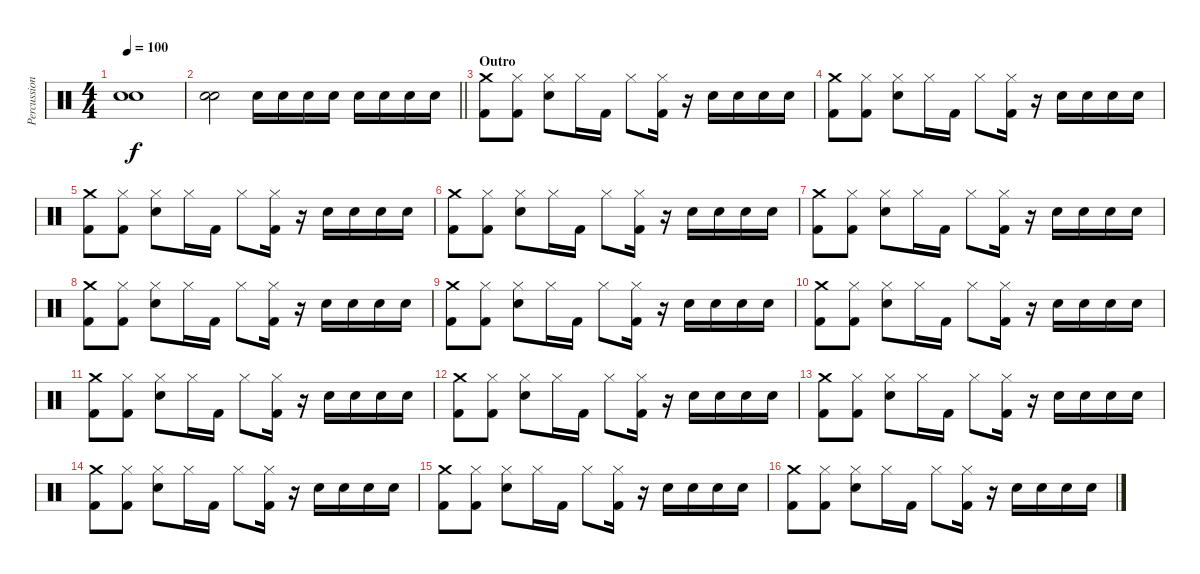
\track ("Percussion" "Percussion") {instrument percussion}
\staff {score}
\articulation defaults
\ts (4 4)
\tempo 100
\clef neutral
\ks c
("Snare (hit)" "Snare (hit)").1{dy f} |
\barLineRight lightlight
("Snare (hit)" "Snare (hit)").2 "Snare (hit) 2".16 "Snare (hit) 2".16 "Snare (hit) 2".16 "Snare (hit) 2".16 "Snare (hit) 2".16 "Snare (hit) 2".16 "Snare (hit) 2".16 "Snare (hit) 2".16 |
\section ("" "Outro")
("Crash medium (hit)" "Kick (hit) 2").8 ("Hi-Hat (closed)" "Kick (hit) 2").8 ("Hi-Hat (closed)" "Snare (hit) 2").8 "Hi-Hat (closed)".16 "Kick (hit) 2".16 "Hi-Hat (closed)".8 ("Hi-Hat (closed)" "Kick (hit) 2").16 r.16 "Snare (hit) 2".16 "Snare (hit) 2".16 "Snare (hit) 2".16 "Snare (hit) 2".16 |
("Crash medium (hit)" "Kick (hit) 2").8 ("Hi-Hat (closed)" "Kick (hit) 2").8 ("Hi-Hat (closed)" "Snare (hit) 2").8 "Hi-Hat (closed)".16 "Kick (hit) 2".16 "Hi-Hat (closed)".8 ("Hi-Hat (closed)" "Kick (hit) 2").16 r.16 "Snare (hit) 2".16 "Snare (hit) 2".16 "Snare (hit) 2".16 "Snare (hit) 2".16 |
("Crash medium (hit)" "Kick (hit) 2").8 ("Hi-Hat (closed)" "Kick (hit) 2").8 ("Hi-Hat (closed)" "Snare (hit) 2").8 "Hi-Hat (closed)".16 "Kick (hit) 2".16 "Hi-Hat (closed)".8 ("Hi-Hat (closed)" "Kick (hit) 2").16 r.16 "Snare (hit) 2".16 "Snare (hit) 2".16 "Snare (hit) 2".16 "Snare (hit) 2".16 |
("Crash medium (hit)" "Kick (hit) 2").8 ("Hi-Hat (closed)" "Kick (hit) 2").8 ("Hi-Hat (closed)" "Snare (hit) 2").8 "Hi-Hat (closed)".16 "Kick (hit) 2".16 "Hi-Hat (closed)".8 ("Hi-Hat (closed)" "Kick (hit) 2").16 r.16 "Snare (hit) 2".16 "Snare (hit) 2".16 "Snare (hit) 2".16 "Snare (hit) 2".16 |
("Crash medium (hit)" "Kick (hit) 2").8 ("Hi-Hat (closed)" "Kick (hit) 2").8 ("Hi-Hat (closed)" "Snare (hit) 2").8 "Hi-Hat (closed)".16 "Kick (hit) 2".16 "Hi-Hat (closed)".8 ("Hi-Hat (closed)" "Kick (hit) 2").16 r.16 "Snare (hit) 2".16 "Snare (hit) 2".16 "Snare (hit) 2".16 "Snare (hit) 2".16 |
("Crash medium (hit)" "Kick (hit) 2").8 ("Hi-Hat (closed)" "Kick (hit) 2").8 ("Hi-Hat (closed)" "Snare (hit) 2").8 "Hi-Hat (closed)".16 "Kick (hit) 2".16 "Hi-Hat (closed)".8 ("Hi-Hat (closed)" "Kick (hit) 2").16 r.16 "Snare (hit) 2".16 "Snare (hit) 2".16 "Snare (hit) 2".16 "Snare (hit) 2".16 |
("Crash medium (hit)" "Kick (hit) 2").8 ("Hi-Hat (closed)" "Kick (hit) 2").8 ("Hi-Hat (closed)" "Snare (hit) 2").8 "Hi-Hat (closed)".16 "Kick (hit) 2".16 "Hi-Hat (closed)".8 ("Hi-Hat (closed)" "Kick (hit) 2").16 r.16 "Snare (hit) 2".16 "Snare (hit) 2".16 "Snare (hit) 2".16 "Snare (hit) 2".16 |
("Crash medium (hit)" "Kick (hit) 2").8 ("Hi-Hat (closed)" "Kick (hit) 2").8 ("Hi-Hat (closed)" "Snare (hit) 2").8 "Hi-Hat (closed)".16 "Kick (hit) 2".16 "Hi-Hat (closed)".8 ("Hi-Hat (closed)" "Kick (hit) 2").16 r.16 "Snare (hit) 2".16 "Snare (hit) 2".16 "Snare (hit) 2".16 "Snare (hit) 2".16 |
("Crash medium (hit)" "Kick (hit) 2").8 ("Hi-Hat (closed)" "Kick (hit) 2").8 ("Hi-Hat (closed)" "Snare (hit) 2").8 "Hi-Hat (closed)".16 "Kick (hit) 2".16 "Hi-Hat (closed)".8 ("Hi-Hat (closed)" "Kick (hit) 2").16 r.16 "Snare (hit) 2".16 "Snare (hit) 2".16 "Snare (hit) 2".16 "Snare (hit) 2".16 |
("Crash medium (hit)" "Kick (hit) 2").8 ("Hi-Hat (closed)" "Kick (hit) 2").8 ("Hi-Hat (closed)" "Snare (hit) 2").8 "Hi-Hat (closed)".16 "Kick (hit) 2".16 "Hi-Hat (closed)".8 ("Hi-Hat (closed)" "Kick (hit) 2").16 r.16 "Snare (hit) 2".16 "Snare (hit) 2".16 "Snare (hit) 2".16 "Snare (hit) 2".16 |
("Crash medium (hit)" "Kick (hit) 2").8 ("Hi-Hat (closed)" "Kick (hit) 2").8 ("Hi-Hat (closed)" "Snare (hit) 2").8 "Hi-Hat (closed)".16 "Kick (hit) 2".16 "Hi-Hat (closed)".8 ("Hi-Hat (closed)" "Kick (hit) 2").16 r.16 "Snare (hit) 2".16 "Snare (hit) 2".16 "Snare (hit) 2".16 "Snare (hit) 2".16 |
("Crash medium (hit)" "Kick (hit) 2").8 ("Hi-Hat (closed)" "Kick (hit) 2").8 ("Hi-Hat (closed)" "Snare (hit) 2").8 "Hi-Hat (closed)".16 "Kick (hit) 2".16 "Hi-Hat (closed)".8 ("Hi-Hat (closed)" "Kick (hit) 2").16 r.16 "Snare (hit) 2".16 "Snare (hit) 2".16 "Snare (hit) 2".16 "Snare (hit) 2".16 |
("Crash medium (hit)" "Kick (hit) 2").8 ("Hi-Hat (closed)" "Kick (hit) 2").8 ("Hi-Hat (closed)" "Snare (hit) 2").8 "Hi-Hat (closed)".16 "Kick (hit) 2".16 "Hi-Hat (closed)".8 ("Hi-Hat (closed)" "Kick (hit) 2").16 r.16 "Snare (hit) 2".16 "Snare (hit) 2".16 "Snare (hit) 2".16 "Snare (hit) 2".16 |
("Crash medium (hit)" "Kick (hit) 2").8 ("Hi-Hat (closed)" "Kick (hit) 2").8 ("Hi-Hat (closed)" "Snare (hit) 2").8 "Hi-Hat (closed)".16 "Kick (hit) 2".16 "Hi-Hat (closed)".8 ("Hi-Hat (closed)" "Kick (hit) 2").16 r.16 "Snare (hit) 2".16 "Snare (hit) 2".16 "Snare (hit) 2".16 "Snare (hit) 2".16
